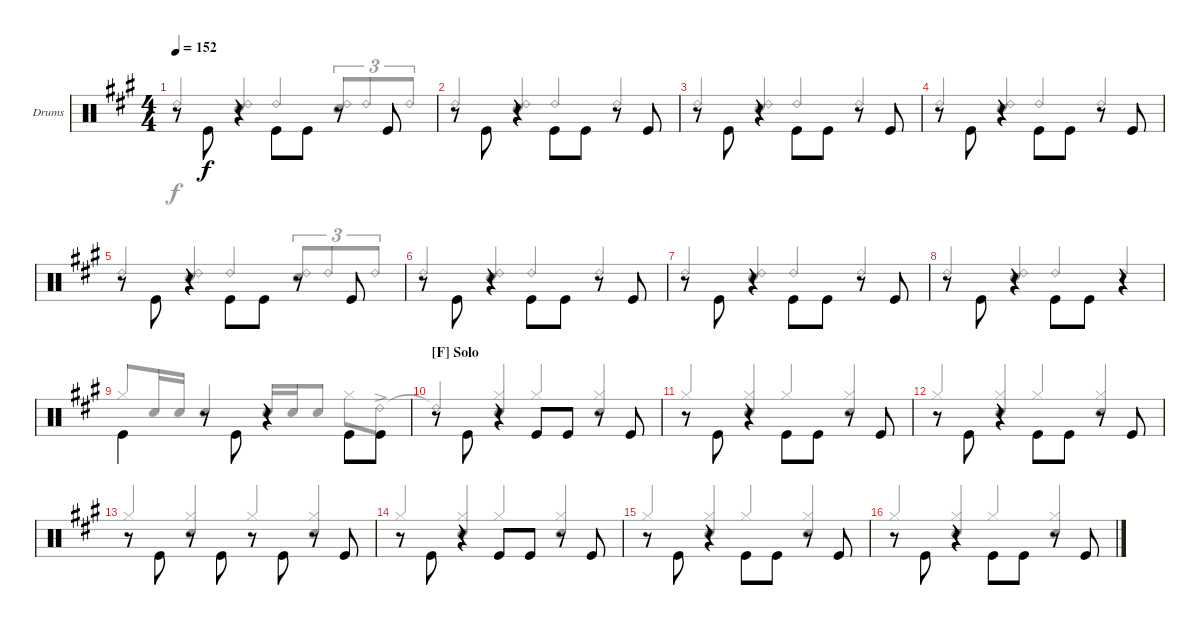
\defaultSystemsLayout 4
\bracketExtendMode groupsimilarinstruments
\firstSystemTrackNameOrientation horizontal
\otherSystemsTrackNameOrientation horizontal
\track ("Drumkit" "Drums") {instrument percussion}
\staff {score}
\articulation defaults
\voice
\ts (4 4)
\tempo 152
\clef neutral
\scale
1.05801
\ks a
r.8{dy f beam invert} "Kick (hit)".8{beam invert} r.4{beam invert} "Kick (hit)".8{beam invert} "Kick (hit)".8 r.8 "Kick (hit)".8 |
\scale
0.941992 r.8{beam invert} "Kick (hit)".8{beam invert} r.4{beam invert} "Kick (hit)".8{beam invert} "Kick (hit)".8 r.8 "Kick (hit)".8 |
\scale
1.05801 r.8{beam invert} "Kick (hit)".8{beam invert} r.4{beam invert} "Kick (hit)".8{beam invert} "Kick (hit)".8 r.8 "Kick (hit)".8 |
\scale
0.941992 r.8{beam invert} "Kick (hit)".8{beam invert} r.4{beam invert} "Kick (hit)".8{beam invert} "Kick (hit)".8 r.8 "Kick (hit)".8 |
\scale
1.05801 r.8{beam invert} "Kick (hit)".8{beam invert} r.4{beam invert} "Kick (hit)".8{beam invert} "Kick (hit)".8 r.8 "Kick (hit)".8 |
\scale
0.941992 r.8{beam invert} "Kick (hit)".8{beam invert} r.4{beam invert} "Kick (hit)".8{beam invert} "Kick (hit)".8 r.8 "Kick (hit)".8 |
\scale
1.05801 r.8{beam invert} "Kick (hit)".8{beam invert} r.4{beam invert} "Kick (hit)".8{beam invert} "Kick (hit)".8 r.8 "Kick (hit)".8 |
\scale
0.941992 r.8{beam invert} "Kick (hit)".8{beam invert} r.4{beam invert} "Kick (hit)".8{beam invert} "Kick (hit)".8 r.4 |
\scale
1.05801 "Kick (hit)".4{beam invert} r.8{beam invert} "Kick (hit)".8{beam invert} r.4{beam invert} "Kick (hit)".8{beam invert} "Kick (hit)".8 |
\section ("F" "Solo")
\scale
0.941992 r.8 "Kick (hit)".8{beam invert} r.4 "Kick (hit)".8 "Kick (hit)".8 r.8 "Kick (hit)".8 |
\scale
1.05801 r.8 "Kick (hit)".8{beam invert} r.4 "Kick (hit)".8{beam invert} "Kick (hit)".8 r.8 "Kick (hit)".8 |
\scale
0.941992 r.8 "Kick (hit)".8{beam invert} r.4 "Kick (hit)".8{beam invert} "Kick (hit)".8 r.8 "Kick (hit)".8 |
\scale
1.05801 r.8 "Kick (hit)".8{beam invert} r.8 "Kick (hit)".8 r.8{beam invert} "Kick (hit)".8{beam invert} r.8 "Kick (hit)".8 |
\scale
0.941992 r.8 "Kick (hit)".8{beam invert} r.4 "Kick (hit)".8 "Kick (hit)".8 r.8 "Kick (hit)".8 |
\scale
1.05801 r.8 "Kick (hit)".8{beam invert} r.4 "Kick (hit)".8{beam invert} "Kick (hit)".8 r.8 "Kick (hit)".8 |
\scale
0.941992 r.8 "Kick (hit)".8{beam invert} r.4 "Kick (hit)".8{beam invert} "Kick (hit)".8 r.8 "Kick (hit)".8
\voice
\clef neutral
\ottava regular
\simile none
\scale
1.05801
\ks a "Ride (bell) 2".4{dy f beam invert}
("Snare (hit) 2" "Ride (bell) 2").4{beam invert} "Ride (bell) 2".4{beam invert} ("Snare (hit) 2" "Ride (bell) 2").8{tu (3 2) beam invert} "Ride (bell) 2".8{tu (3 2) beam invert} "Ride (bell) 2".8{tu (3 2) beam invert} |
\scale
0.941992 "Ride (bell) 2".4{beam invert} ("Snare (hit) 2" "Ride (bell) 2").4{beam invert} "Ride (bell) 2".4{beam invert} "Ride (bell) 2".4{beam invert} |
\scale
1.05801 "Ride (bell) 2".4{beam invert} ("Snare (hit) 2" "Ride (bell) 2").4{beam invert} "Ride (bell) 2".4{beam invert} "Ride (bell) 2".4{beam invert} |
\scale
0.941992 "Ride (bell) 2".4{beam invert} ("Snare (hit) 2" "Ride (bell) 2").4{beam invert} "Ride (bell) 2".4{beam invert} "Ride (bell) 2".4{beam invert} |
\scale
1.05801 "Ride (bell) 2".4{beam invert} ("Snare (hit) 2" "Ride (bell) 2").4{beam invert} "Ride (bell) 2".4{beam invert} ("Snare (hit) 2" "Ride (bell) 2").8{tu (3 2) beam invert} "Ride (bell) 2".8{tu (3 2) beam invert} "Ride (bell) 2".8{tu (3 2) beam invert} |
\scale
0.941992 "Ride (bell) 2".4{beam invert} ("Snare (hit) 2" "Ride (bell) 2").4{beam invert} "Ride (bell) 2".4{beam invert} "Ride (bell) 2".4{beam invert} |
\scale
1.05801 "Ride (bell) 2".4{beam invert} ("Snare (hit) 2" "Ride (bell) 2").4{beam invert} "Ride (bell) 2".4{beam invert} "Ride (bell) 2".4{beam invert} |
\scale
0.941992 "Ride (bell) 2".4{beam invert} ("Snare (hit) 2" "Ride (bell) 2").4{beam invert} "Ride (bell) 2".4{beam invert} "Ride (bell) 2".4{beam invert} |
\scale
1.05801 "Hi-Hat (closed)".8{beam invert} "Snare (hit) 2".16{beam invert} "Snare (hit) 2".16 "Snare (hit) 2".4{beam invert} "Snare (hit) 2".16{beam invert} "Snare (hit) 2".16 "Snare (hit) 2".8 "Hi-Hat (closed)".8 "Ride (bell) 2"{ac}.8 |
\scale
0.941992 "Ride (bell) 2"{t}.4{beam invert} ("Hi-Hat (closed)" "Snare (hit) 2").4{beam invert} "Hi-Hat (closed)".4{beam invert} ("Hi-Hat (closed)" "Snare (hit) 2").4{beam invert} |
\scale
1.05801 "Hi-Hat (closed)".4{beam invert} ("Hi-Hat (closed)" "Snare (hit) 2").4{beam invert} "Hi-Hat (closed)".4{beam invert} ("Hi-Hat (closed)" "Snare (hit) 2").4{beam invert} |
\scale
0.941992 "Hi-Hat (closed)".4{beam invert} ("Hi-Hat (closed)" "Snare (hit) 2").4{beam invert} "Hi-Hat (closed)".4{beam invert} ("Hi-Hat (closed)" "Snare (hit) 2").4{beam invert} |
\scale
1.05801 "Hi-Hat (closed)".4{beam invert} ("Hi-Hat (closed)" "Snare (hit) 2").4{beam invert} "Hi-Hat (closed)".4{beam invert} ("Hi-Hat (closed)" "Snare (hit) 2").4{beam invert} |
\scale
0.941992 "Hi-Hat (closed)".4{beam invert} ("Hi-Hat (closed)" "Snare (hit) 2").4{beam invert} "Hi-Hat (closed)".4{beam invert} ("Hi-Hat (closed)" "Snare (hit) 2").4{beam invert} |
\scale
1.05801 "Hi-Hat (closed)".4{beam invert} ("Hi-Hat (closed)" "Snare (hit) 2").4{beam invert} "Hi-Hat (closed)".4{beam invert} ("Hi-Hat (closed)" "Snare (hit) 2").4{beam invert} |
\scale
0.941992 "Hi-Hat (closed)".4{beam invert} ("Hi-Hat (closed)" "Snare (hit) 2").4{beam invert} "Hi-Hat (closed)".4{beam invert} ("Hi-Hat (closed)" "Snare (hit) 2").4{beam invert}
